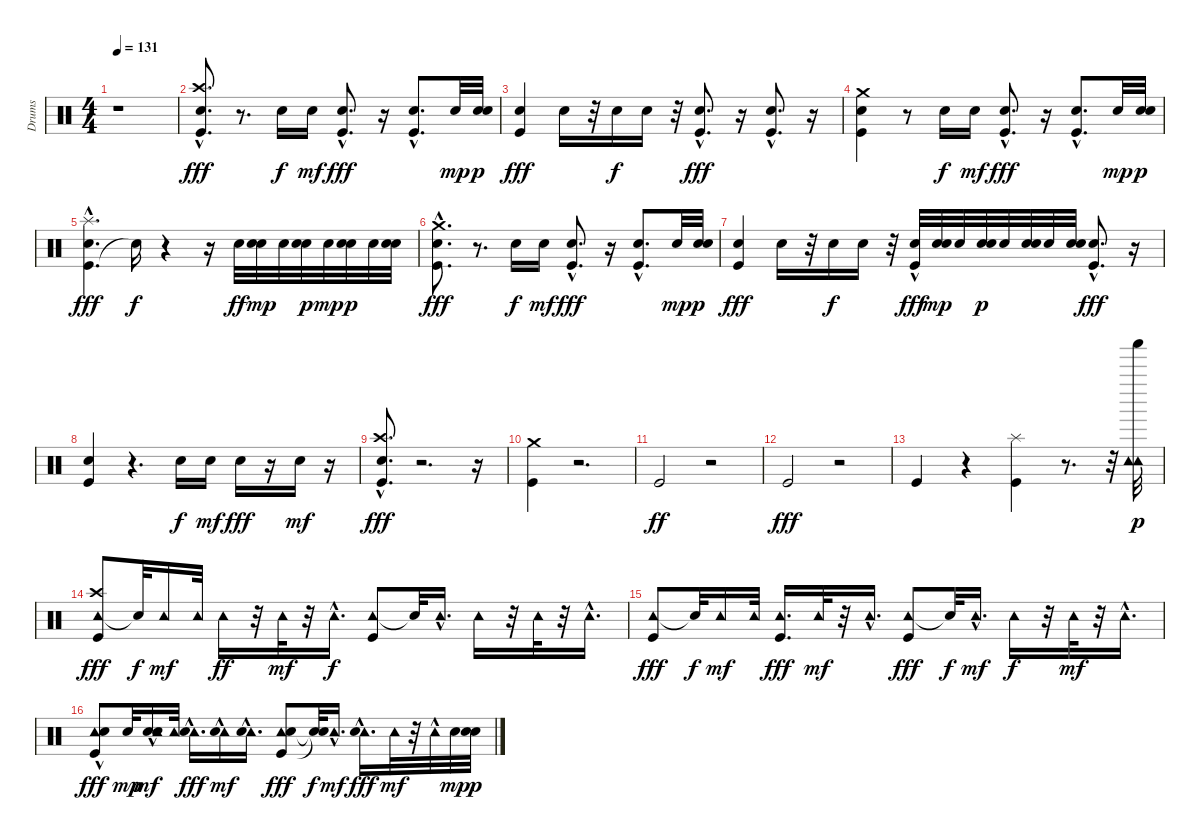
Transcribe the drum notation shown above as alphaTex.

\track ("Drums" "Drums") {instrument percussion}
\staff {score}
\articulation defaults
\ts (4 4)
\tempo 131
\clef neutral
\ks c
r.1{dy fff} |
("Kick (hit)"{hac} "Crash high (hit)" "Snare (hit) 2").8{d} r.8{d} "Snare (hit) 2".16{dy f} "Snare (hit) 2".16{dy mf} ("Kick (hit)"{hac} "Snare (hit) 2").8{d dy fff} r.16 ("Kick (hit)"{hac} "Snare (hit) 2").8{d} "Snare (hit) 2".32{dy mp} ("Snare (hit) 2" "Snare (hit) 2").32{dy p} |
("Kick (hit)" "Snare (hit) 2").4{dy fff} "Snare (hit) 2".16 r.32 "Snare (hit) 2".16{dy f} "Snare (hit) 2".16 r.32 ("Kick (hit)"{hac} "Snare (hit) 2").8{d dy fff} r.16 ("Kick (hit)"{hac} "Snare (hit) 2").8{d} r.16 |
("Kick (hit)" "Snare (hit) 2" "Crash medium (hit)").4 r.8 "Snare (hit) 2".16{dy f} "Snare (hit) 2".16{dy mf} ("Kick (hit)"{hac} "Snare (hit) 2").8{d dy fff} r.16 ("Kick (hit)"{hac} "Snare (hit) 2").8{d} "Snare (hit) 2".32{dy mp} ("Snare (hit) 2" "Snare (hit) 2").32{dy p} |
("Kick (hit)"{hac} "Snare (hit) 2" "Splash (hit)").4{d dy fff} "Snare (hit)"{t}.16{dy f} r.4 r.16 "Snare (hit) 2".32{dy ff} ("Snare (hit) 2" "Snare (hit) 2").32{dy mp} "Snare (hit) 2".32 ("Snare (hit) 2" "Snare (hit) 2").32{dy p} "Snare (hit) 2".32{dy mp} ("Snare (hit) 2" "Snare (hit) 2").32{dy p} "Snare (hit) 2".32 ("Snare (hit) 2" "Snare (hit) 2").32 |
("Snare (hit) 2" "Kick (hit)"{hac} "Crash medium (hit)").8{d dy fff} r.8{d} "Snare (hit) 2".16{dy f} "Snare (hit) 2".16{dy mf} ("Snare (hit) 2" "Kick (hit)"{hac}).8{d dy fff} r.16 ("Snare (hit) 2" "Kick (hit)"{hac}).8{d} "Snare (hit) 2".32{dy mp} ("Snare (hit) 2" "Snare (hit) 2").32{dy p} |
("Snare (hit) 2" "Kick (hit)").4{dy fff} "Snare (hit) 2".16 r.32 "Snare (hit) 2".16{dy f} "Snare (hit) 2".16 r.32 ("Snare (hit) 2" "Kick (hit)"{hac}).32{dy fff} ("Snare (hit) 2" "Snare (hit) 2").32{dy mp} "Snare (hit) 2".32 ("Snare (hit) 2" "Snare (hit) 2").32{dy p} "Snare (hit) 2".32 ("Snare (hit) 2" "Snare (hit) 2").32 "Snare (hit) 2".32 ("Snare (hit) 2" "Snare (hit) 2").32 ("Snare (hit) 2" "Kick (hit)"{hac}).8{d dy fff} r.16 |
("Snare (hit) 2" "Kick (hit)").4 r.4{d} "Snare (hit) 2".16{dy f} "Snare (hit) 2".16{dy mf} "Snare (hit) 2".16{dy fff} r.16 "Snare (hit) 2".16{dy mf} r.16 |
("Crash high (hit)" "Kick (hit)"{hac} "Snare (hit) 2").8{d dy fff} r.2{d} r.16 |
("Crash medium (hit)" "Kick (hit)").4 r.2{d} |
"Kick (hit)".2{dy ff} r.2 |
"Kick (hit)".2{dy fff} r.2 |
"Kick (hit)".4 r.4 ("Kick (hit)" "Splash (hit)").4 r.8{d} r.32 ("Tambourine (hit)" "Tambourine (hit)" "Shaker (hit)").32{dy p} |
("Tambourine (hit)" "Kick (hit)" "Crash high (hit)").8{dy fff} "Snare (hit)"{t}.32{dy f} "Tambourine (hit)".16{dy mf} "Tambourine (hit)".32 "Tambourine (hit)".16{dy ff} r.32 "Tambourine (hit)".32{dy mf} r.32 "Tambourine (hit)"{hac}.16{d dy f} ("Tambourine (hit)" "Kick (hit)").8 "Snare (hit)"{t}.32 "Tambourine (hit)"{hac}.16{d} "Tambourine (hit)".16 r.32 "Tambourine (hit)".32 r.32 "Tambourine (hit)"{hac}.16{d} |
("Tambourine (hit)" "Kick (hit)").8{dy fff} "Snare (hit)"{t}.32{dy f} "Tambourine (hit)".16{dy mf} "Tambourine (hit)".32 ("Tambourine (hit)" "Kick (hit)").16{d dy fff} "Tambourine (hit)".32{dy mf} r.32 "Tambourine (hit)"{hac}.16{d} ("Tambourine (hit)" "Kick (hit)").8{dy fff} "Snare (hit)"{t}.32{dy f} "Tambourine (hit)"{hac}.16{d dy mf} "Tambourine (hit)".16{dy f} r.32 "Tambourine (hit)".32{dy mf} r.32 "Tambourine (hit)"{hac}.16{d} |
("Tambourine (hit)" "Kick (hit)"{hac} "Snare (hit) 2").8{dy fff} "Snare (hit) 2".32{dy mp} ("Snare (hit) 2" "Tambourine (hit)" "Snare (hit) 2"{hac}).16{dy mf} "Tambourine (hit)".32 ("Tambourine (hit)" "Snare (hit) 2"{hac}).16{d dy fff} ("Tambourine (hit)" "Snare (hit) 2"{hac}).16{dy mf} ("Tambourine (hit)"{hac} "Snare (hit) 2"{hac}).16{d} ("Tambourine (hit)" "Kick (hit)" "Snare (hit) 2").8{dy fff} ("Snare (hit)"{t} "Snare (hit)"{t}).32{dy f} "Tambourine (hit)"{hac}.16{d dy mf} ("Tambourine (hit)" "Snare (hit) 2"{hac}).16{d dy fff} "Tambourine (hit)".32{dy mf} r.32 "Tambourine (hit)"{hac}.32 "Snare (hit) 2".32{dy mp} ("Snare (hit) 2" "Snare (hit) 2").32{dy p}
